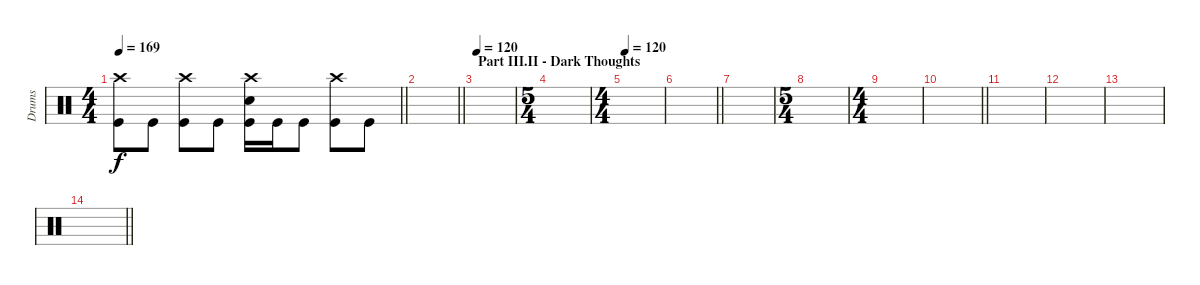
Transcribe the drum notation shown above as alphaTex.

\track ("Drums" "Drums") {instrument percussion}
\staff
\articulation defaults
\ts (4 4)
\tempo 169
\clef neutral
\barLineRight lightlight
\ks c
("Crash high (hit)" "Kick (hit)").8{dy f} "Kick (hit)".8 ("Crash high (hit)" "Kick (hit)").8 "Kick (hit)".8 ("Crash high (hit)" "Electric Snare (hit)" "Kick (hit)").16 "Kick (hit)".16 "Kick (hit)".8 ("Crash high (hit)" "Kick (hit)").8 "Kick (hit)".8 |
\barLineRight lightlight
|
\section ("" "Part III.II - Dark Thoughts")
\tempo 120
|
\ts (5 4)
|
\ts (4 4)
\tempo 120
|
\barLineRight lightlight
|
|
\ts (5 4)
|
\ts (4 4)
|
\barLineRight lightlight
|
|
|
|
\barLineRight lightlight
